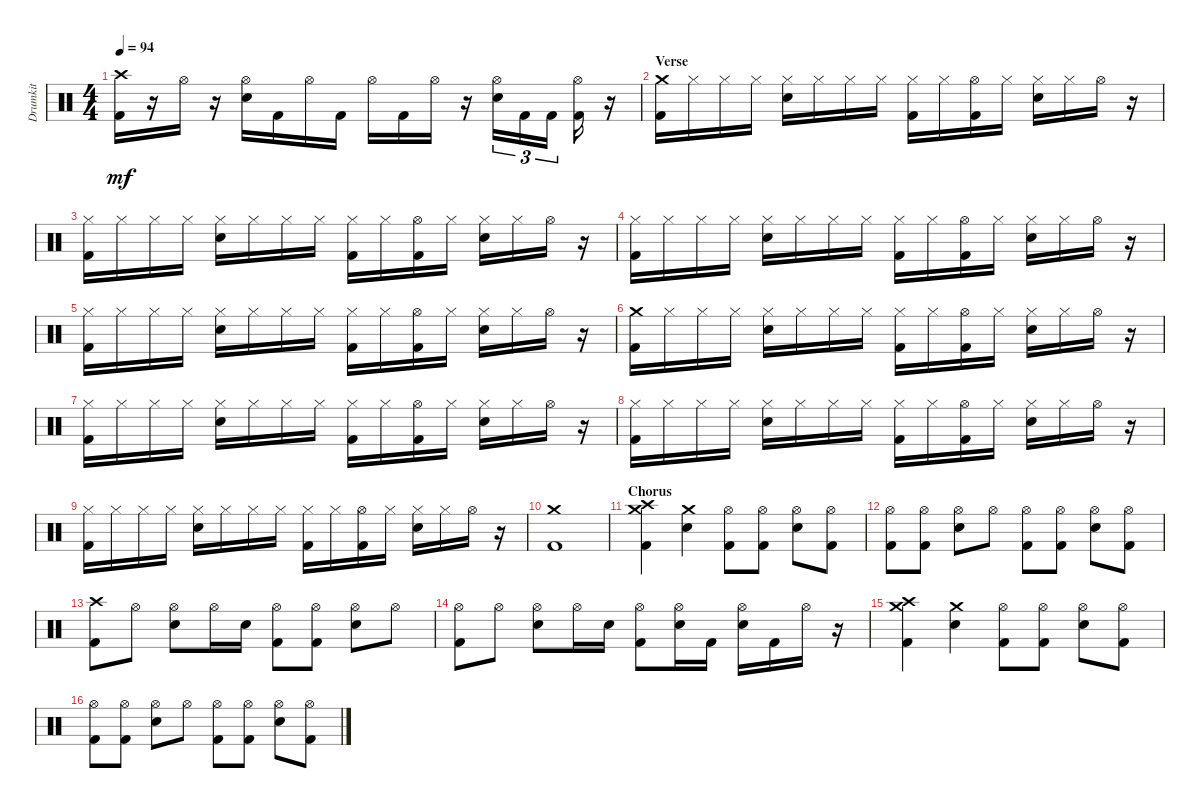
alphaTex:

\track ("Drumkit" "Drumkit") {instrument percussion}
\staff {score}
\articulation defaults
\ts (4 4)
\tempo 94
\clef neutral
\ks c
("Crash high (hit)" "Kick (hit) 2").16{dy mf} r.16 "Hi-Hat (open)".16 r.16 ("Hi-Hat (open)" "Snare (hit) 2").16 "Kick (hit) 2".16 "Hi-Hat (open)".16 "Kick (hit) 2".16 "Hi-Hat (open)".16 "Kick (hit) 2".16 "Hi-Hat (open)".16 r.16 ("Hi-Hat (open)" "Snare (hit) 2").16{tu (3 2)} "Kick (hit) 2".16{tu (3 2)} "Kick (hit) 2".16{tu (3 2)} ("Hi-Hat (open)" "Kick (hit) 2").16 r.16 |
\section ("" "Verse")
("Crash medium (hit)" "Kick (hit) 2").16 "Hi-Hat (closed)".16 "Hi-Hat (closed)".16 "Hi-Hat (closed)".16 ("Hi-Hat (closed)" "Snare (hit) 2").16 "Hi-Hat (closed)".16 "Hi-Hat (closed)".16 "Hi-Hat (closed)".16 ("Hi-Hat (closed)" "Kick (hit) 2").16 "Hi-Hat (closed)".16 ("Hi-Hat (open)" "Kick (hit) 2").16 "Hi-Hat (closed)".16 ("Hi-Hat (closed)" "Snare (hit) 2").16 "Hi-Hat (closed)".16 "Hi-Hat (open)".16 r.16 |
("Hi-Hat (closed)" "Kick (hit) 2").16 "Hi-Hat (closed)".16 "Hi-Hat (closed)".16 "Hi-Hat (closed)".16 ("Hi-Hat (closed)" "Snare (hit) 2").16 "Hi-Hat (closed)".16 "Hi-Hat (closed)".16 "Hi-Hat (closed)".16 ("Hi-Hat (closed)" "Kick (hit) 2").16 "Hi-Hat (closed)".16 ("Hi-Hat (open)" "Kick (hit) 2").16 "Hi-Hat (closed)".16 ("Hi-Hat (closed)" "Snare (hit) 2").16 "Hi-Hat (closed)".16 "Hi-Hat (open)".16 r.16 |
("Hi-Hat (closed)" "Kick (hit) 2").16 "Hi-Hat (closed)".16 "Hi-Hat (closed)".16 "Hi-Hat (closed)".16 ("Hi-Hat (closed)" "Snare (hit) 2").16 "Hi-Hat (closed)".16 "Hi-Hat (closed)".16 "Hi-Hat (closed)".16 ("Hi-Hat (closed)" "Kick (hit) 2").16 "Hi-Hat (closed)".16 ("Hi-Hat (open)" "Kick (hit) 2").16 "Hi-Hat (closed)".16 ("Hi-Hat (closed)" "Snare (hit) 2").16 "Hi-Hat (closed)".16 "Hi-Hat (open)".16 r.16 |
("Hi-Hat (closed)" "Kick (hit) 2").16 "Hi-Hat (closed)".16 "Hi-Hat (closed)".16 "Hi-Hat (closed)".16 ("Hi-Hat (closed)" "Snare (hit) 2").16 "Hi-Hat (closed)".16 "Hi-Hat (closed)".16 "Hi-Hat (closed)".16 ("Hi-Hat (closed)" "Kick (hit) 2").16 "Hi-Hat (closed)".16 ("Hi-Hat (open)" "Kick (hit) 2").16 "Hi-Hat (closed)".16 ("Hi-Hat (closed)" "Snare (hit) 2").16 "Hi-Hat (closed)".16 "Hi-Hat (open)".16 r.16 |
("Crash medium (hit)" "Kick (hit) 2").16 "Hi-Hat (closed)".16 "Hi-Hat (closed)".16 "Hi-Hat (closed)".16 ("Hi-Hat (closed)" "Snare (hit) 2").16 "Hi-Hat (closed)".16 "Hi-Hat (closed)".16 "Hi-Hat (closed)".16 ("Hi-Hat (closed)" "Kick (hit) 2").16 "Hi-Hat (closed)".16 ("Hi-Hat (open)" "Kick (hit) 2").16 "Hi-Hat (closed)".16 ("Hi-Hat (closed)" "Snare (hit) 2").16 "Hi-Hat (closed)".16 "Hi-Hat (open)".16 r.16 |
("Hi-Hat (closed)" "Kick (hit) 2").16 "Hi-Hat (closed)".16 "Hi-Hat (closed)".16 "Hi-Hat (closed)".16 ("Hi-Hat (closed)" "Snare (hit) 2").16 "Hi-Hat (closed)".16 "Hi-Hat (closed)".16 "Hi-Hat (closed)".16 ("Hi-Hat (closed)" "Kick (hit) 2").16 "Hi-Hat (closed)".16 ("Hi-Hat (open)" "Kick (hit) 2").16 "Hi-Hat (closed)".16 ("Hi-Hat (closed)" "Snare (hit) 2").16 "Hi-Hat (closed)".16 "Hi-Hat (open)".16 r.16 |
("Hi-Hat (closed)" "Kick (hit) 2").16 "Hi-Hat (closed)".16 "Hi-Hat (closed)".16 "Hi-Hat (closed)".16 ("Hi-Hat (closed)" "Snare (hit) 2").16 "Hi-Hat (closed)".16 "Hi-Hat (closed)".16 "Hi-Hat (closed)".16 ("Hi-Hat (closed)" "Kick (hit) 2").16 "Hi-Hat (closed)".16 ("Hi-Hat (open)" "Kick (hit) 2").16 "Hi-Hat (closed)".16 ("Hi-Hat (closed)" "Snare (hit) 2").16 "Hi-Hat (closed)".16 "Hi-Hat (open)".16 r.16 |
("Hi-Hat (closed)" "Kick (hit) 2").16 "Hi-Hat (closed)".16 "Hi-Hat (closed)".16 "Hi-Hat (closed)".16 ("Hi-Hat (closed)" "Snare (hit) 2").16 "Hi-Hat (closed)".16 "Hi-Hat (closed)".16 "Hi-Hat (closed)".16 ("Hi-Hat (closed)" "Kick (hit) 2").16 "Hi-Hat (closed)".16 ("Hi-Hat (open)" "Kick (hit) 2").16 "Hi-Hat (closed)".16 ("Hi-Hat (closed)" "Snare (hit) 2").16 "Hi-Hat (closed)".16 "Hi-Hat (open)".16 r.16 |
("Crash medium (hit)" "Kick (hit) 2").1 |
\section ("" "Chorus")
("Crash medium (hit)" "Crash high (hit)" "Kick (hit) 2").4 ("Crash medium (hit)" "Snare (hit) 2").4 ("Hi-Hat (open)" "Kick (hit) 2").8 ("Hi-Hat (open)" "Kick (hit) 2").8 ("Hi-Hat (open)" "Snare (hit) 2").8 ("Hi-Hat (open)" "Kick (hit) 2").8 |
("Hi-Hat (open)" "Kick (hit) 2").8 ("Hi-Hat (open)" "Kick (hit) 2").8 ("Hi-Hat (open)" "Snare (hit) 2").8 "Hi-Hat (open)".8 ("Hi-Hat (open)" "Kick (hit) 2").8 ("Hi-Hat (open)" "Kick (hit) 2").8 ("Hi-Hat (open)" "Snare (hit) 2").8 ("Hi-Hat (open)" "Kick (hit) 2").8 |
("Crash high (hit)" "Kick (hit) 2").8 "Hi-Hat (open)".8 ("Hi-Hat (open)" "Snare (hit) 2").8 "Hi-Hat (open)".16 "Snare (hit) 2".16 ("Hi-Hat (open)" "Kick (hit) 2").8 ("Hi-Hat (open)" "Kick (hit) 2").8 ("Hi-Hat (open)" "Snare (hit) 2").8 "Hi-Hat (open)".8 |
("Hi-Hat (open)" "Kick (hit) 2").8 "Hi-Hat (open)".8 ("Hi-Hat (open)" "Snare (hit) 2").8 "Hi-Hat (open)".16 "Snare (hit) 2".16 ("Hi-Hat (open)" "Kick (hit) 2").8 ("Hi-Hat (open)" "Snare (hit) 2").16 "Kick (hit) 2".16 ("Hi-Hat (open)" "Snare (hit) 2").16 "Kick (hit) 2".16 "Hi-Hat (open)".16 r.16 |
("Crash medium (hit)" "Crash high (hit)" "Kick (hit) 2").4 ("Crash medium (hit)" "Snare (hit) 2").4 ("Hi-Hat (open)" "Kick (hit) 2").8 ("Hi-Hat (open)" "Kick (hit) 2").8 ("Hi-Hat (open)" "Snare (hit) 2").8 ("Hi-Hat (open)" "Kick (hit) 2").8 |
("Hi-Hat (open)" "Kick (hit) 2").8 ("Hi-Hat (open)" "Kick (hit) 2").8 ("Hi-Hat (open)" "Snare (hit) 2").8 "Hi-Hat (open)".8 ("Hi-Hat (open)" "Kick (hit) 2").8 ("Hi-Hat (open)" "Kick (hit) 2").8 ("Hi-Hat (open)" "Snare (hit) 2").8 ("Hi-Hat (open)" "Kick (hit) 2").8
